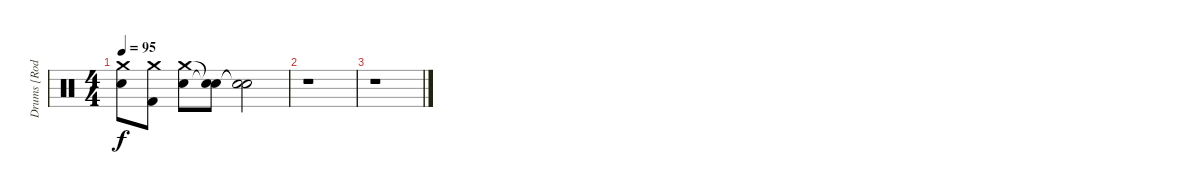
\track ("Drums [Rodney Holder]" "Drums [Rod") {instrument percussion}
\staff {score}
\articulation defaults
\ts (4 4)
\tempo 95
\clef neutral
\ks c
("Crash medium (hit)" "Electric Snare (hit)").8{dy f} ("Crash medium (hit)" "Kick (hit) 2").8 ("Crash medium (hit)" "Electric Snare (hit)").8 ("Snare (hit)"{t} "Snare (hit)"{t}).8 ("Snare (hit)"{t} "Snare (hit)"{t}).2 |
r.1 |
r.1
